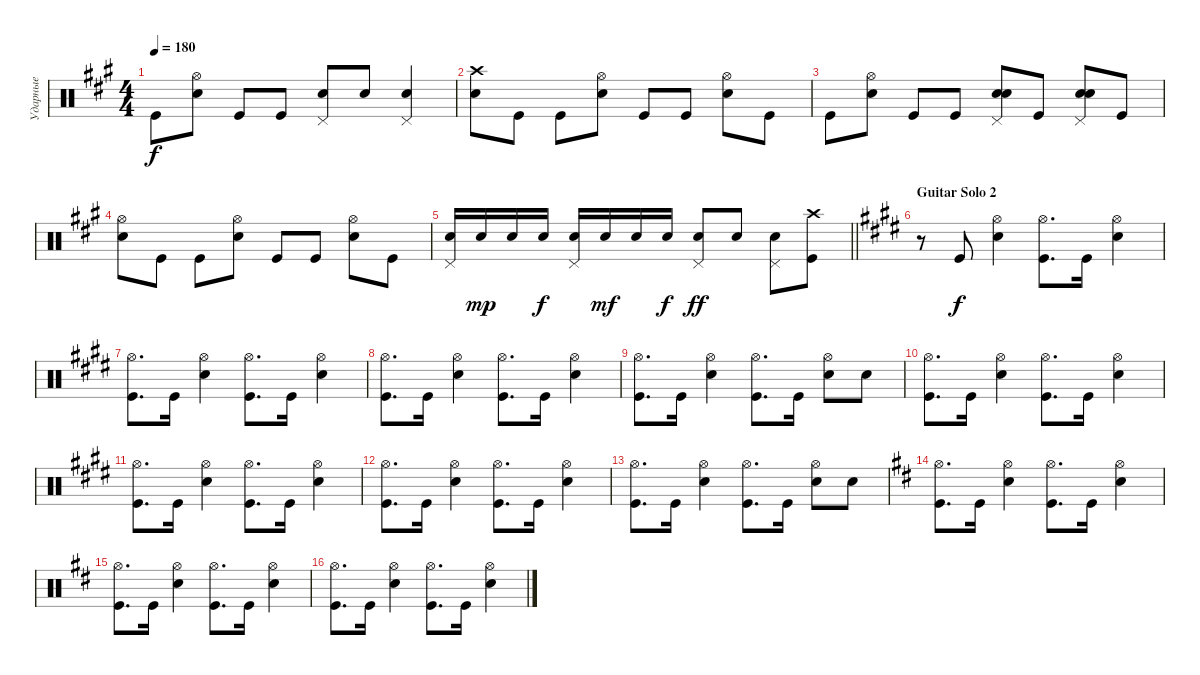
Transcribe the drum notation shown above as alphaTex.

\track ("Ударные" "Ударные") {instrument percussion}
\staff {score}
\articulation defaults
\ts (4 4)
\tempo 180
\clef neutral
\ks f#minor "Kick (hit)".8{dy f}
("Snare (hit) 2" "Hi-Hat (open)").8 "Kick (hit)".8 "Kick (hit)".8 ("Snare (hit) 2" "Pedal Hi-Hat (hit)").8 "Snare (hit) 2".8 ("Snare (hit) 2" "Pedal Hi-Hat (hit)").4 |
("Snare (hit) 2" "Crash high (hit)").8 "Kick (hit)".8 "Kick (hit)".8 ("Snare (hit) 2" "Hi-Hat (open)").8 "Kick (hit)".8 "Kick (hit)".8 ("Snare (hit) 2" "Hi-Hat (open)").8 "Kick (hit)".8 |
"Kick (hit)".8 ("Snare (hit) 2" "Hi-Hat (open)").8 "Kick (hit)".8 "Kick (hit)".8 ("Snare (hit) 2" "Snare (hit) 2" "Pedal Hi-Hat (hit)").8{bd 240} "Kick (hit)".8 ("Snare (hit) 2" "Snare (hit) 2" "Pedal Hi-Hat (hit)").8{bd 240} "Kick (hit)".8 |
("Snare (hit) 2" "Hi-Hat (open)").8 "Kick (hit)".8 "Kick (hit)".8 ("Snare (hit) 2" "Hi-Hat (open)").8 "Kick (hit)".8 "Kick (hit)".8 ("Snare (hit) 2" "Hi-Hat (open)").8 "Kick (hit)".8 |
\barLineRight lightlight
("Snare (hit) 2" "Pedal Hi-Hat (hit)").16 "Snare (hit) 2".16{dy mp} "Snare (hit) 2".16 "Snare (hit) 2".16{dy f} ("Snare (hit) 2" "Pedal Hi-Hat (hit)").16 "Snare (hit) 2".16{dy mf} "Snare (hit) 2".16 "Snare (hit) 2".16{dy f} ("Snare (hit) 2" "Pedal Hi-Hat (hit)").8{dy ff} "Snare (hit) 2".8 ("Snare (hit) 2" "Pedal Hi-Hat (hit)").8 ("Kick (hit)" "Crash high (hit)").8 |
\section ("" "Guitar Solo 2")
\ks c#minor
r.8 "Kick (hit)".8{dy f} ("Hi-Hat (open)" "Snare (hit) 2").4 ("Kick (hit)" "Hi-Hat (open)").8{d} "Kick (hit)".16 ("Snare (hit) 2" "Hi-Hat (open)").4 |
("Hi-Hat (open)" "Kick (hit)").8{d} "Kick (hit)".16 ("Hi-Hat (open)" "Snare (hit) 2").4 ("Kick (hit)" "Hi-Hat (open)").8{d} "Kick (hit)".16 ("Snare (hit) 2" "Hi-Hat (open)").4 |
("Hi-Hat (open)" "Kick (hit)").8{d} "Kick (hit)".16 ("Hi-Hat (open)" "Snare (hit) 2").4 ("Kick (hit)" "Hi-Hat (open)").8{d} "Kick (hit)".16 ("Snare (hit) 2" "Hi-Hat (open)").4 |
("Hi-Hat (open)" "Kick (hit)").8{d} "Kick (hit)".16 ("Hi-Hat (open)" "Snare (hit) 2").4 ("Kick (hit)" "Hi-Hat (open)").8{d} "Kick (hit)".16 ("Snare (hit) 2" "Hi-Hat (open)").8 "Snare (hit) 2".8 |
("Hi-Hat (open)" "Kick (hit)").8{d} "Kick (hit)".16 ("Hi-Hat (open)" "Snare (hit) 2").4 ("Kick (hit)" "Hi-Hat (open)").8{d} "Kick (hit)".16 ("Snare (hit) 2" "Hi-Hat (open)").4 |
("Hi-Hat (open)" "Kick (hit)").8{d} "Kick (hit)".16 ("Hi-Hat (open)" "Snare (hit) 2").4 ("Kick (hit)" "Hi-Hat (open)").8{d} "Kick (hit)".16 ("Snare (hit) 2" "Hi-Hat (open)").4 |
("Hi-Hat (open)" "Kick (hit)").8{d} "Kick (hit)".16 ("Hi-Hat (open)" "Snare (hit) 2").4 ("Kick (hit)" "Hi-Hat (open)").8{d} "Kick (hit)".16 ("Snare (hit) 2" "Hi-Hat (open)").4 |
("Hi-Hat (open)" "Kick (hit)").8{d} "Kick (hit)".16 ("Hi-Hat (open)" "Snare (hit) 2").4 ("Kick (hit)" "Hi-Hat (open)").8{d} "Kick (hit)".16 ("Snare (hit) 2" "Hi-Hat (open)").8 "Snare (hit) 2".8 |
\ks bminor
("Hi-Hat (open)" "Kick (hit)").8{d} "Kick (hit)".16 ("Hi-Hat (open)" "Snare (hit) 2").4 ("Kick (hit)" "Hi-Hat (open)").8{d} "Kick (hit)".16 ("Snare (hit) 2" "Hi-Hat (open)").4 |
("Hi-Hat (open)" "Kick (hit)").8{d} "Kick (hit)".16 ("Hi-Hat (open)" "Snare (hit) 2").4 ("Kick (hit)" "Hi-Hat (open)").8{d} "Kick (hit)".16 ("Snare (hit) 2" "Hi-Hat (open)").4 |
("Hi-Hat (open)" "Kick (hit)").8{d} "Kick (hit)".16 ("Hi-Hat (open)" "Snare (hit) 2").4 ("Kick (hit)" "Hi-Hat (open)").8{d} "Kick (hit)".16 ("Snare (hit) 2" "Hi-Hat (open)").4
